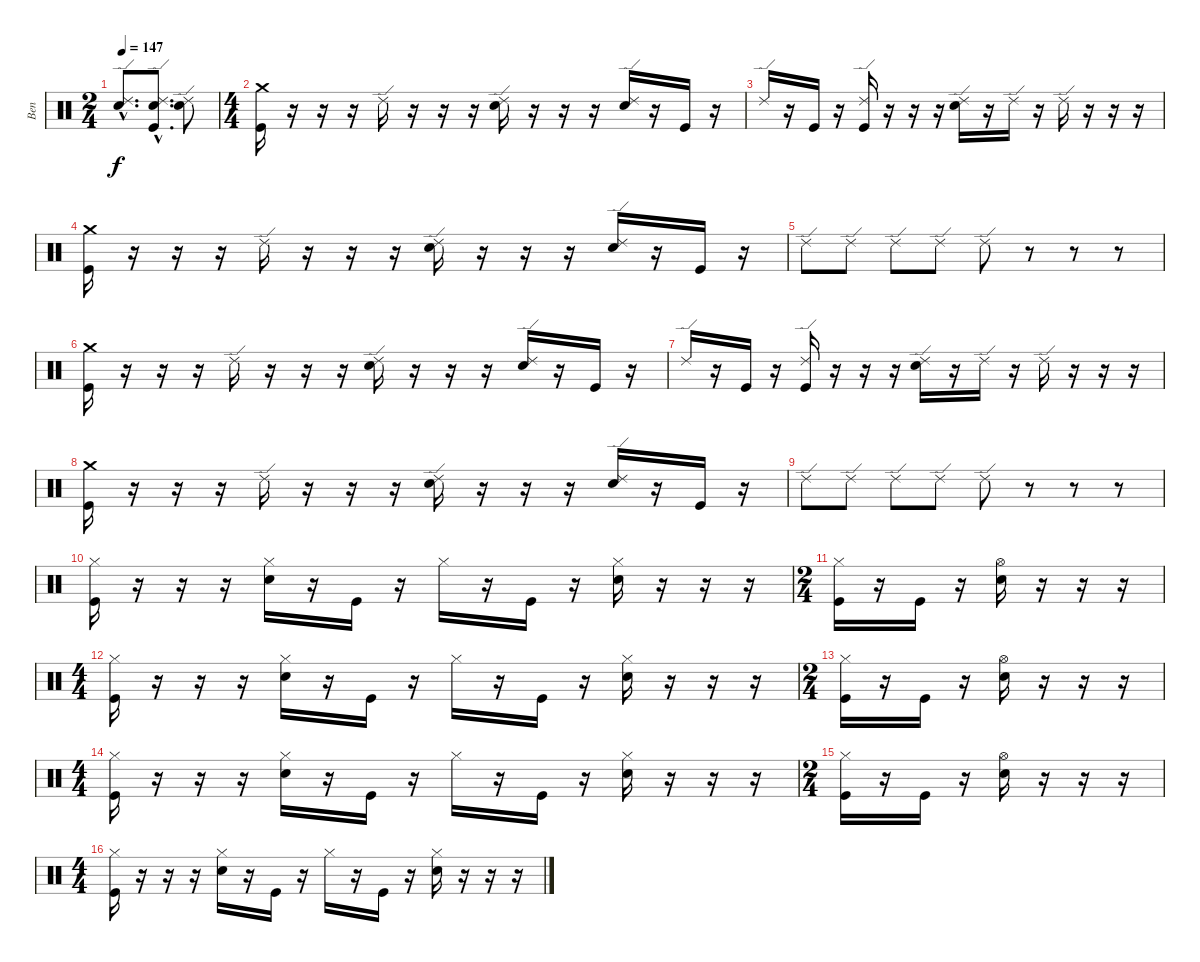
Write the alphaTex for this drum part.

\track ("Ben" "Ben") {instrument percussion}
\staff {score}
\articulation defaults
\ts (2 4)
\tempo 147
\clef neutral
\ks c
("Ride (edge) 2"{hac} "Electric Snare (hit)"{hac}).8{d dy f} ("Ride (edge) 2"{hac} "Electric Snare (hit)"{hac} "Kick (hit)"{hac}).8{d} ("Ride (edge) 2" "Electric Snare (hit)").8 |
\ts (4 4)
("Crash medium (hit)" "Kick (hit)").16 r.16 r.16 r.16 "Ride (edge) 2".16 r.16 r.16 r.16 ("Ride (edge) 2" "Electric Snare (hit)").16 r.16 r.16 r.16 ("Ride (edge) 2" "Electric Snare (hit)").16 r.16 "Kick (hit)".16 r.16 |
"Ride (edge) 2".16 r.16 "Kick (hit)".16 r.16 ("Ride (edge) 2" "Kick (hit)").16 r.16 r.16 r.16 ("Ride (edge) 2" "Electric Snare (hit)").16 r.16 "Ride (edge) 2".16 r.16 "Ride (edge) 2".16 r.16 r.16 r.16 |
("Crash medium (hit)" "Kick (hit)").16 r.16 r.16 r.16 "Ride (edge) 2".16 r.16 r.16 r.16 ("Ride (edge) 2" "Electric Snare (hit)").16 r.16 r.16 r.16 ("Ride (edge) 2" "Electric Snare (hit)").16 r.16 "Kick (hit)".16 r.16 |
"Ride (edge) 2".8 "Ride (edge) 2".8 "Ride (edge) 2".8 "Ride (edge) 2".8 "Ride (edge) 2".8 r.8 r.8 r.8 |
("Crash medium (hit)" "Kick (hit)").16 r.16 r.16 r.16 "Ride (edge) 2".16 r.16 r.16 r.16 ("Ride (edge) 2" "Electric Snare (hit)").16 r.16 r.16 r.16 ("Ride (edge) 2" "Electric Snare (hit)").16 r.16 "Kick (hit)".16 r.16 |
"Ride (edge) 2".16 r.16 "Kick (hit)".16 r.16 ("Ride (edge) 2" "Kick (hit)").16 r.16 r.16 r.16 ("Ride (edge) 2" "Electric Snare (hit)").16 r.16 "Ride (edge) 2".16 r.16 "Ride (edge) 2".16 r.16 r.16 r.16 |
("Crash medium (hit)" "Kick (hit)").16 r.16 r.16 r.16 "Ride (edge) 2".16 r.16 r.16 r.16 ("Ride (edge) 2" "Electric Snare (hit)").16 r.16 r.16 r.16 ("Ride (edge) 2" "Electric Snare (hit)").16 r.16 "Kick (hit)".16 r.16 |
"Ride (edge) 2".8 "Ride (edge) 2".8 "Ride (edge) 2".8 "Ride (edge) 2".8 "Ride (edge) 2".8 r.8 r.8 r.8 |
("Hi-Hat (closed)" "Kick (hit)").16 r.16 r.16 r.16 ("Hi-Hat (closed)" "Electric Snare (hit)").16 r.16 "Kick (hit)".16 r.16 "Hi-Hat (closed)".16 r.16 "Kick (hit)".16 r.16 ("Hi-Hat (closed)" "Electric Snare (hit)").16 r.16 r.16 r.16 |
\ts (2 4)
("Hi-Hat (closed)" "Kick (hit)").16 r.16 "Kick (hit)".16 r.16 ("Hi-Hat (open)" "Electric Snare (hit)").16 r.16 r.16 r.16 |
\ts (4 4)
("Hi-Hat (closed)" "Kick (hit)").16 r.16 r.16 r.16 ("Hi-Hat (closed)" "Electric Snare (hit)").16 r.16 "Kick (hit)".16 r.16 "Hi-Hat (closed)".16 r.16 "Kick (hit)".16 r.16 ("Hi-Hat (closed)" "Electric Snare (hit)").16 r.16 r.16 r.16 |
\ts (2 4)
("Hi-Hat (closed)" "Kick (hit)").16 r.16 "Kick (hit)".16 r.16 ("Hi-Hat (open)" "Electric Snare (hit)").16 r.16 r.16 r.16 |
\ts (4 4)
("Hi-Hat (closed)" "Kick (hit)").16 r.16 r.16 r.16 ("Hi-Hat (closed)" "Electric Snare (hit)").16 r.16 "Kick (hit)".16 r.16 "Hi-Hat (closed)".16 r.16 "Kick (hit)".16 r.16 ("Hi-Hat (closed)" "Electric Snare (hit)").16 r.16 r.16 r.16 |
\ts (2 4)
("Hi-Hat (closed)" "Kick (hit)").16 r.16 "Kick (hit)".16 r.16 ("Hi-Hat (open)" "Electric Snare (hit)").16 r.16 r.16 r.16 |
\ts (4 4)
("Hi-Hat (closed)" "Kick (hit)").16 r.16 r.16 r.16 ("Hi-Hat (closed)" "Electric Snare (hit)").16 r.16 "Kick (hit)".16 r.16 "Hi-Hat (closed)".16 r.16 "Kick (hit)".16 r.16 ("Hi-Hat (closed)" "Electric Snare (hit)").16 r.16 r.16 r.16
